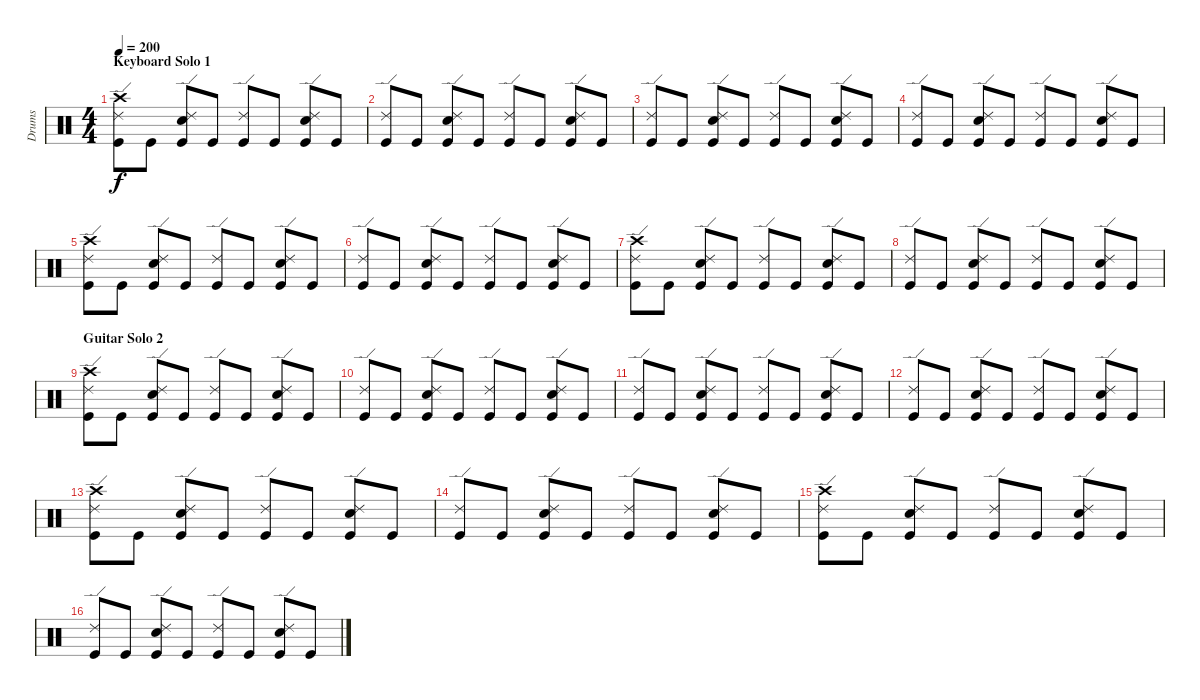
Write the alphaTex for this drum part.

\track ("Drums" "Drums") {instrument percussion}
\staff {score}
\articulation defaults
\ts (4 4)
\section ("" "Keyboard Solo 1")
\tempo 200
\clef neutral
\ks c
("Crash high (hit)" "Ride (edge) 2" "Kick (hit)").8{dy f} "Kick (hit)".8 ("Ride (edge) 2" "Snare (hit) 2" "Kick (hit)").8 "Kick (hit)".8 ("Ride (edge) 2" "Kick (hit)").8 "Kick (hit)".8 ("Ride (edge) 2" "Snare (hit) 2" "Kick (hit)").8 "Kick (hit)".8 |
("Ride (edge) 2" "Kick (hit)").8 "Kick (hit)".8 ("Ride (edge) 2" "Snare (hit) 2" "Kick (hit)").8 "Kick (hit)".8 ("Ride (edge) 2" "Kick (hit)").8 "Kick (hit)".8 ("Ride (edge) 2" "Snare (hit) 2" "Kick (hit)").8 "Kick (hit)".8 |
("Ride (edge) 2" "Kick (hit)").8 "Kick (hit)".8 ("Ride (edge) 2" "Snare (hit) 2" "Kick (hit)").8 "Kick (hit)".8 ("Ride (edge) 2" "Kick (hit)").8 "Kick (hit)".8 ("Ride (edge) 2" "Snare (hit) 2" "Kick (hit)").8 "Kick (hit)".8 |
("Ride (edge) 2" "Kick (hit)").8 "Kick (hit)".8 ("Ride (edge) 2" "Snare (hit) 2" "Kick (hit)").8 "Kick (hit)".8 ("Ride (edge) 2" "Kick (hit)").8 "Kick (hit)".8 ("Ride (edge) 2" "Snare (hit) 2" "Kick (hit)").8 "Kick (hit)".8 |
("Crash high (hit)" "Ride (edge) 2" "Kick (hit)").8 "Kick (hit)".8 ("Ride (edge) 2" "Snare (hit) 2" "Kick (hit)").8 "Kick (hit)".8 ("Ride (edge) 2" "Kick (hit)").8 "Kick (hit)".8 ("Ride (edge) 2" "Snare (hit) 2" "Kick (hit)").8 "Kick (hit)".8 |
("Ride (edge) 2" "Kick (hit)").8 "Kick (hit)".8 ("Ride (edge) 2" "Snare (hit) 2" "Kick (hit)").8 "Kick (hit)".8 ("Ride (edge) 2" "Kick (hit)").8 "Kick (hit)".8 ("Ride (edge) 2" "Snare (hit) 2" "Kick (hit)").8 "Kick (hit)".8 |
("Crash high (hit)" "Ride (edge) 2" "Kick (hit)").8 "Kick (hit)".8 ("Ride (edge) 2" "Snare (hit) 2" "Kick (hit)").8 "Kick (hit)".8 ("Ride (edge) 2" "Kick (hit)").8 "Kick (hit)".8 ("Ride (edge) 2" "Snare (hit) 2" "Kick (hit)").8 "Kick (hit)".8 |
("Ride (edge) 2" "Kick (hit)").8 "Kick (hit)".8 ("Ride (edge) 2" "Snare (hit) 2" "Kick (hit)").8 "Kick (hit)".8 ("Ride (edge) 2" "Kick (hit)").8 "Kick (hit)".8 ("Ride (edge) 2" "Snare (hit) 2" "Kick (hit)").8 "Kick (hit)".8 |
\section ("" "Guitar Solo 2")
("Crash high (hit)" "Ride (edge) 2" "Kick (hit)").8 "Kick (hit)".8 ("Ride (edge) 2" "Snare (hit) 2" "Kick (hit)").8 "Kick (hit)".8 ("Ride (edge) 2" "Kick (hit)").8 "Kick (hit)".8 ("Ride (edge) 2" "Snare (hit) 2" "Kick (hit)").8 "Kick (hit)".8 |
("Ride (edge) 2" "Kick (hit)").8 "Kick (hit)".8 ("Ride (edge) 2" "Snare (hit) 2" "Kick (hit)").8 "Kick (hit)".8 ("Ride (edge) 2" "Kick (hit)").8 "Kick (hit)".8 ("Ride (edge) 2" "Snare (hit) 2" "Kick (hit)").8 "Kick (hit)".8 |
("Ride (edge) 2" "Kick (hit)").8 "Kick (hit)".8 ("Ride (edge) 2" "Snare (hit) 2" "Kick (hit)").8 "Kick (hit)".8 ("Ride (edge) 2" "Kick (hit)").8 "Kick (hit)".8 ("Ride (edge) 2" "Snare (hit) 2" "Kick (hit)").8 "Kick (hit)".8 |
("Ride (edge) 2" "Kick (hit)").8 "Kick (hit)".8 ("Ride (edge) 2" "Snare (hit) 2" "Kick (hit)").8 "Kick (hit)".8 ("Ride (edge) 2" "Kick (hit)").8 "Kick (hit)".8 ("Ride (edge) 2" "Snare (hit) 2" "Kick (hit)").8 "Kick (hit)".8 |
("Crash high (hit)" "Ride (edge) 2" "Kick (hit)").8 "Kick (hit)".8 ("Ride (edge) 2" "Snare (hit) 2" "Kick (hit)").8 "Kick (hit)".8 ("Ride (edge) 2" "Kick (hit)").8 "Kick (hit)".8 ("Ride (edge) 2" "Snare (hit) 2" "Kick (hit)").8 "Kick (hit)".8 |
("Ride (edge) 2" "Kick (hit)").8 "Kick (hit)".8 ("Ride (edge) 2" "Snare (hit) 2" "Kick (hit)").8 "Kick (hit)".8 ("Ride (edge) 2" "Kick (hit)").8 "Kick (hit)".8 ("Ride (edge) 2" "Snare (hit) 2" "Kick (hit)").8 "Kick (hit)".8 |
("Crash high (hit)" "Ride (edge) 2" "Kick (hit)").8 "Kick (hit)".8 ("Ride (edge) 2" "Snare (hit) 2" "Kick (hit)").8 "Kick (hit)".8 ("Ride (edge) 2" "Kick (hit)").8 "Kick (hit)".8 ("Ride (edge) 2" "Snare (hit) 2" "Kick (hit)").8 "Kick (hit)".8 |
("Ride (edge) 2" "Kick (hit)").8 "Kick (hit)".8 ("Ride (edge) 2" "Snare (hit) 2" "Kick (hit)").8 "Kick (hit)".8 ("Ride (edge) 2" "Kick (hit)").8 "Kick (hit)".8 ("Ride (edge) 2" "Snare (hit) 2" "Kick (hit)").8 "Kick (hit)".8
